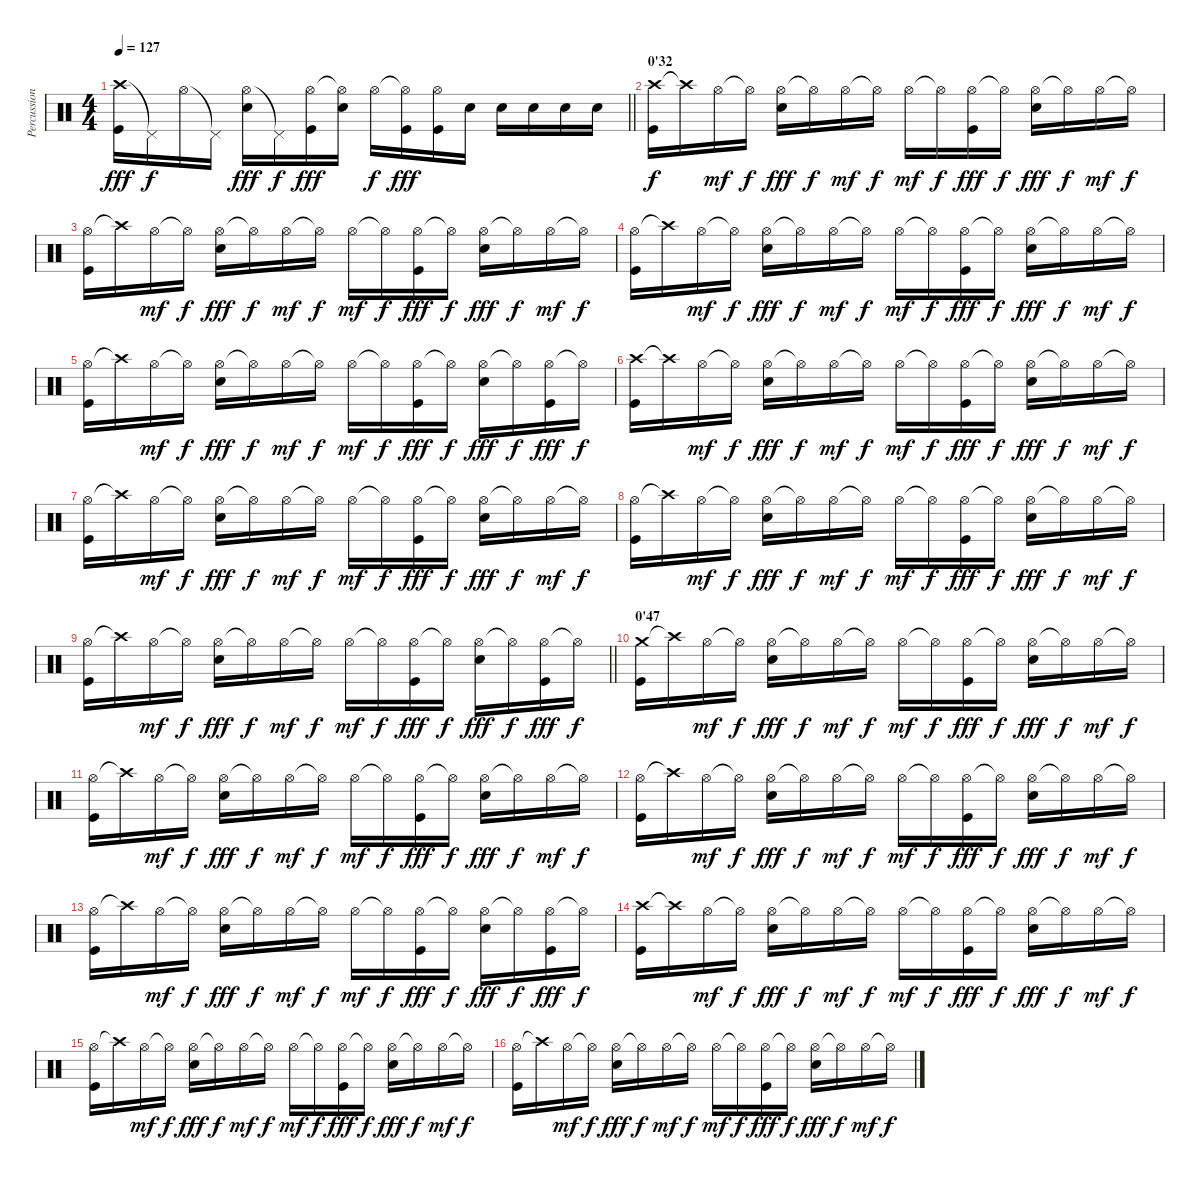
\track ("Percussions" "Percussion") {instrument percussion}
\staff {score}
\articulation defaults
\ts (4 4)
\tempo 127
\clef neutral
\barLineRight lightlight
\ks c
("Crash high (hit)" "Kick (hit)").16{dy fff} "Pedal Hi-Hat (hit)"{t}.16{dy f} "Hi-Hat (open)".16 "Pedal Hi-Hat (hit)"{t}.16 ("Hi-Hat (open)" "Electric Snare (hit)").16{dy fff} "Pedal Hi-Hat (hit)"{t}.16{dy f} ("Hi-Hat (open)" "Kick (hit)").16{dy fff} ("Hi-Hat (open)"{t} "Electric Snare (hit)").16 "Hi-Hat (open)".16{dy f} ("Hi-Hat (open)"{t} "Kick (hit)").16{dy fff} ("Hi-Hat (open)" "Kick (hit)").16 "Electric Snare (hit)".16 "Electric Snare (hit)".16 "Electric Snare (hit)".16 "Electric Snare (hit)".16 "Electric Snare (hit)".16 |
\section ("" "0'32")
("Crash high (hit)" "Kick (hit)").16{dy f} "Crash high (hit)"{t}.16 "Hi-Hat (open)".16{dy mf} "Hi-Hat (open)"{t}.16{dy f} ("Hi-Hat (open)" "Electric Snare (hit)").16{dy fff} "Hi-Hat (open)"{t}.16{dy f} "Hi-Hat (open)".16{dy mf} "Hi-Hat (open)"{t}.16{dy f} "Hi-Hat (open)".16{dy mf} "Hi-Hat (open)"{t}.16{dy f} ("Hi-Hat (open)" "Kick (hit)").16{dy fff} "Hi-Hat (open)"{t}.16{dy f} ("Hi-Hat (open)" "Electric Snare (hit)").16{dy fff} "Hi-Hat (open)"{t}.16{dy f} "Hi-Hat (open)".16{dy mf} "Hi-Hat (open)"{t}.16{dy f} |
("Hi-Hat (open)" "Kick (hit)").16 "Crash high (hit)"{t}.16 "Hi-Hat (open)".16{dy mf} "Hi-Hat (open)"{t}.16{dy f} ("Hi-Hat (open)" "Electric Snare (hit)").16{dy fff} "Hi-Hat (open)"{t}.16{dy f} "Hi-Hat (open)".16{dy mf} "Hi-Hat (open)"{t}.16{dy f} "Hi-Hat (open)".16{dy mf} "Hi-Hat (open)"{t}.16{dy f} ("Hi-Hat (open)" "Kick (hit)").16{dy fff} "Hi-Hat (open)"{t}.16{dy f} ("Hi-Hat (open)" "Electric Snare (hit)").16{dy fff} "Hi-Hat (open)"{t}.16{dy f} "Hi-Hat (open)".16{dy mf} "Hi-Hat (open)"{t}.16{dy f} |
("Hi-Hat (open)" "Kick (hit)").16 "Crash high (hit)"{t}.16 "Hi-Hat (open)".16{dy mf} "Hi-Hat (open)"{t}.16{dy f} ("Hi-Hat (open)" "Electric Snare (hit)").16{dy fff} "Hi-Hat (open)"{t}.16{dy f} "Hi-Hat (open)".16{dy mf} "Hi-Hat (open)"{t}.16{dy f} "Hi-Hat (open)".16{dy mf} "Hi-Hat (open)"{t}.16{dy f} ("Hi-Hat (open)" "Kick (hit)").16{dy fff} "Hi-Hat (open)"{t}.16{dy f} ("Hi-Hat (open)" "Electric Snare (hit)").16{dy fff} "Hi-Hat (open)"{t}.16{dy f} "Hi-Hat (open)".16{dy mf} "Hi-Hat (open)"{t}.16{dy f} |
("Hi-Hat (open)" "Kick (hit)").16 "Crash high (hit)"{t}.16 "Hi-Hat (open)".16{dy mf} "Hi-Hat (open)"{t}.16{dy f} ("Hi-Hat (open)" "Electric Snare (hit)").16{dy fff} "Hi-Hat (open)"{t}.16{dy f} "Hi-Hat (open)".16{dy mf} "Hi-Hat (open)"{t}.16{dy f} "Hi-Hat (open)".16{dy mf} "Hi-Hat (open)"{t}.16{dy f} ("Hi-Hat (open)" "Kick (hit)").16{dy fff} "Hi-Hat (open)"{t}.16{dy f} ("Hi-Hat (open)" "Electric Snare (hit)").16{dy fff} "Hi-Hat (open)"{t}.16{dy f} ("Hi-Hat (open)" "Kick (hit)").16{dy fff} "Hi-Hat (open)"{t}.16{dy f} |
("Crash high (hit)" "Kick (hit)").16 "Crash high (hit)"{t}.16 "Hi-Hat (open)".16{dy mf} "Hi-Hat (open)"{t}.16{dy f} ("Hi-Hat (open)" "Electric Snare (hit)").16{dy fff} "Hi-Hat (open)"{t}.16{dy f} "Hi-Hat (open)".16{dy mf} "Hi-Hat (open)"{t}.16{dy f} "Hi-Hat (open)".16{dy mf} "Hi-Hat (open)"{t}.16{dy f} ("Hi-Hat (open)" "Kick (hit)").16{dy fff} "Hi-Hat (open)"{t}.16{dy f} ("Hi-Hat (open)" "Electric Snare (hit)").16{dy fff} "Hi-Hat (open)"{t}.16{dy f} "Hi-Hat (open)".16{dy mf} "Hi-Hat (open)"{t}.16{dy f} |
("Hi-Hat (open)" "Kick (hit)").16 "Crash high (hit)"{t}.16 "Hi-Hat (open)".16{dy mf} "Hi-Hat (open)"{t}.16{dy f} ("Hi-Hat (open)" "Electric Snare (hit)").16{dy fff} "Hi-Hat (open)"{t}.16{dy f} "Hi-Hat (open)".16{dy mf} "Hi-Hat (open)"{t}.16{dy f} "Hi-Hat (open)".16{dy mf} "Hi-Hat (open)"{t}.16{dy f} ("Hi-Hat (open)" "Kick (hit)").16{dy fff} "Hi-Hat (open)"{t}.16{dy f} ("Hi-Hat (open)" "Electric Snare (hit)").16{dy fff} "Hi-Hat (open)"{t}.16{dy f} "Hi-Hat (open)".16{dy mf} "Hi-Hat (open)"{t}.16{dy f} |
("Hi-Hat (open)" "Kick (hit)").16 "Crash high (hit)"{t}.16 "Hi-Hat (open)".16{dy mf} "Hi-Hat (open)"{t}.16{dy f} ("Hi-Hat (open)" "Electric Snare (hit)").16{dy fff} "Hi-Hat (open)"{t}.16{dy f} "Hi-Hat (open)".16{dy mf} "Hi-Hat (open)"{t}.16{dy f} "Hi-Hat (open)".16{dy mf} "Hi-Hat (open)"{t}.16{dy f} ("Hi-Hat (open)" "Kick (hit)").16{dy fff} "Hi-Hat (open)"{t}.16{dy f} ("Hi-Hat (open)" "Electric Snare (hit)").16{dy fff} "Hi-Hat (open)"{t}.16{dy f} "Hi-Hat (open)".16{dy mf} "Hi-Hat (open)"{t}.16{dy f} |
\barLineRight lightlight
("Hi-Hat (open)" "Kick (hit)").16 "Crash high (hit)"{t}.16 "Hi-Hat (open)".16{dy mf} "Hi-Hat (open)"{t}.16{dy f} ("Hi-Hat (open)" "Electric Snare (hit)").16{dy fff} "Hi-Hat (open)"{t}.16{dy f} "Hi-Hat (open)".16{dy mf} "Hi-Hat (open)"{t}.16{dy f} "Hi-Hat (open)".16{dy mf} "Hi-Hat (open)"{t}.16{dy f} ("Hi-Hat (open)" "Kick (hit)").16{dy fff} "Hi-Hat (open)"{t}.16{dy f} ("Hi-Hat (open)" "Electric Snare (hit)").16{dy fff} "Hi-Hat (open)"{t}.16{dy f} ("Hi-Hat (open)" "Kick (hit)").16{dy fff} "Hi-Hat (open)"{t}.16{dy f} |
\section ("" "0'47")
("Crash medium (hit)" "Kick (hit)").16 "Crash high (hit)"{t}.16 "Hi-Hat (open)".16{dy mf} "Hi-Hat (open)"{t}.16{dy f} ("Hi-Hat (open)" "Electric Snare (hit)").16{dy fff} "Hi-Hat (open)"{t}.16{dy f} "Hi-Hat (open)".16{dy mf} "Hi-Hat (open)"{t}.16{dy f} "Hi-Hat (open)".16{dy mf} "Hi-Hat (open)"{t}.16{dy f} ("Hi-Hat (open)" "Kick (hit)").16{dy fff} "Hi-Hat (open)"{t}.16{dy f} ("Hi-Hat (open)" "Electric Snare (hit)").16{dy fff} "Hi-Hat (open)"{t}.16{dy f} "Hi-Hat (open)".16{dy mf} "Hi-Hat (open)"{t}.16{dy f} |
("Hi-Hat (open)" "Kick (hit)").16 "Crash high (hit)"{t}.16 "Hi-Hat (open)".16{dy mf} "Hi-Hat (open)"{t}.16{dy f} ("Hi-Hat (open)" "Electric Snare (hit)").16{dy fff} "Hi-Hat (open)"{t}.16{dy f} "Hi-Hat (open)".16{dy mf} "Hi-Hat (open)"{t}.16{dy f} "Hi-Hat (open)".16{dy mf} "Hi-Hat (open)"{t}.16{dy f} ("Hi-Hat (open)" "Kick (hit)").16{dy fff} "Hi-Hat (open)"{t}.16{dy f} ("Hi-Hat (open)" "Electric Snare (hit)").16{dy fff} "Hi-Hat (open)"{t}.16{dy f} "Hi-Hat (open)".16{dy mf} "Hi-Hat (open)"{t}.16{dy f} |
("Hi-Hat (open)" "Kick (hit)").16 "Crash high (hit)"{t}.16 "Hi-Hat (open)".16{dy mf} "Hi-Hat (open)"{t}.16{dy f} ("Hi-Hat (open)" "Electric Snare (hit)").16{dy fff} "Hi-Hat (open)"{t}.16{dy f} "Hi-Hat (open)".16{dy mf} "Hi-Hat (open)"{t}.16{dy f} "Hi-Hat (open)".16{dy mf} "Hi-Hat (open)"{t}.16{dy f} ("Hi-Hat (open)" "Kick (hit)").16{dy fff} "Hi-Hat (open)"{t}.16{dy f} ("Hi-Hat (open)" "Electric Snare (hit)").16{dy fff} "Hi-Hat (open)"{t}.16{dy f} "Hi-Hat (open)".16{dy mf} "Hi-Hat (open)"{t}.16{dy f} |
("Hi-Hat (open)" "Kick (hit)").16 "Crash high (hit)"{t}.16 "Hi-Hat (open)".16{dy mf} "Hi-Hat (open)"{t}.16{dy f} ("Hi-Hat (open)" "Electric Snare (hit)").16{dy fff} "Hi-Hat (open)"{t}.16{dy f} "Hi-Hat (open)".16{dy mf} "Hi-Hat (open)"{t}.16{dy f} "Hi-Hat (open)".16{dy mf} "Hi-Hat (open)"{t}.16{dy f} ("Hi-Hat (open)" "Kick (hit)").16{dy fff} "Hi-Hat (open)"{t}.16{dy f} ("Hi-Hat (open)" "Electric Snare (hit)").16{dy fff} "Hi-Hat (open)"{t}.16{dy f} ("Hi-Hat (open)" "Kick (hit)").16{dy fff} "Hi-Hat (open)"{t}.16{dy f} |
("Crash high (hit)" "Kick (hit)").16 "Crash high (hit)"{t}.16 "Hi-Hat (open)".16{dy mf} "Hi-Hat (open)"{t}.16{dy f} ("Hi-Hat (open)" "Electric Snare (hit)").16{dy fff} "Hi-Hat (open)"{t}.16{dy f} "Hi-Hat (open)".16{dy mf} "Hi-Hat (open)"{t}.16{dy f} "Hi-Hat (open)".16{dy mf} "Hi-Hat (open)"{t}.16{dy f} ("Hi-Hat (open)" "Kick (hit)").16{dy fff} "Hi-Hat (open)"{t}.16{dy f} ("Hi-Hat (open)" "Electric Snare (hit)").16{dy fff} "Hi-Hat (open)"{t}.16{dy f} "Hi-Hat (open)".16{dy mf} "Hi-Hat (open)"{t}.16{dy f} |
("Hi-Hat (open)" "Kick (hit)").16 "Crash high (hit)"{t}.16 "Hi-Hat (open)".16{dy mf} "Hi-Hat (open)"{t}.16{dy f} ("Hi-Hat (open)" "Electric Snare (hit)").16{dy fff} "Hi-Hat (open)"{t}.16{dy f} "Hi-Hat (open)".16{dy mf} "Hi-Hat (open)"{t}.16{dy f} "Hi-Hat (open)".16{dy mf} "Hi-Hat (open)"{t}.16{dy f} ("Hi-Hat (open)" "Kick (hit)").16{dy fff} "Hi-Hat (open)"{t}.16{dy f} ("Hi-Hat (open)" "Electric Snare (hit)").16{dy fff} "Hi-Hat (open)"{t}.16{dy f} "Hi-Hat (open)".16{dy mf} "Hi-Hat (open)"{t}.16{dy f} |
("Hi-Hat (open)" "Kick (hit)").16 "Crash high (hit)"{t}.16 "Hi-Hat (open)".16{dy mf} "Hi-Hat (open)"{t}.16{dy f} ("Hi-Hat (open)" "Electric Snare (hit)").16{dy fff} "Hi-Hat (open)"{t}.16{dy f} "Hi-Hat (open)".16{dy mf} "Hi-Hat (open)"{t}.16{dy f} "Hi-Hat (open)".16{dy mf} "Hi-Hat (open)"{t}.16{dy f} ("Hi-Hat (open)" "Kick (hit)").16{dy fff} "Hi-Hat (open)"{t}.16{dy f} ("Hi-Hat (open)" "Electric Snare (hit)").16{dy fff} "Hi-Hat (open)"{t}.16{dy f} "Hi-Hat (open)".16{dy mf} "Hi-Hat (open)"{t}.16{dy f}
